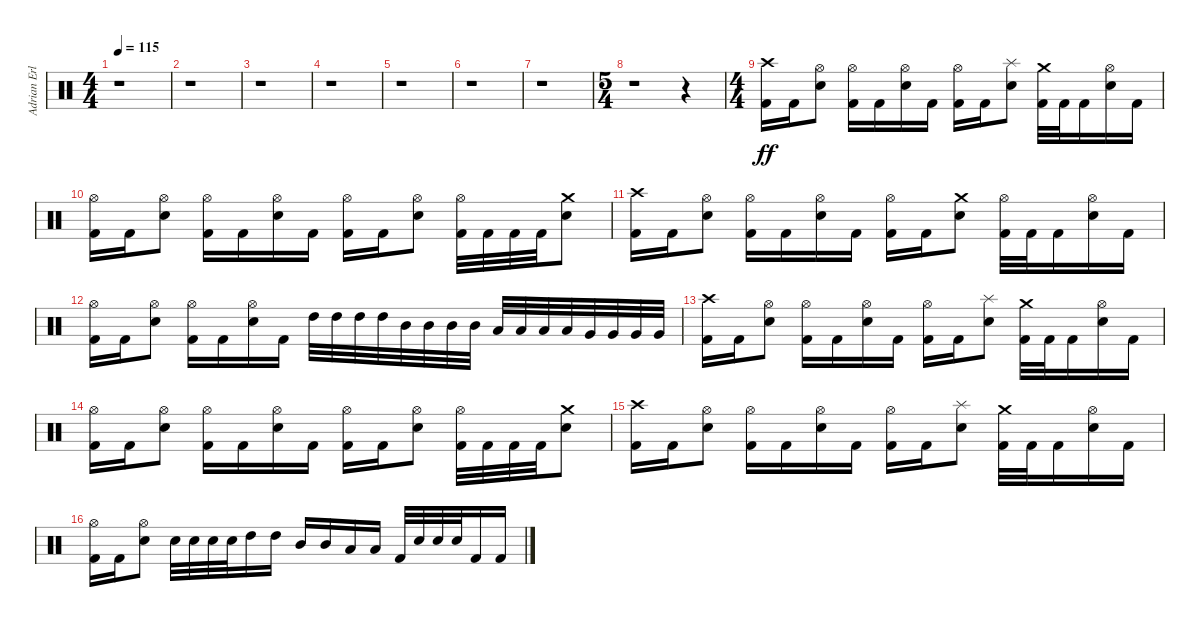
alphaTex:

\track ("Adrian Erlandsson" "Adrian Erl") {instrument percussion}
\staff {score}
\articulation defaults
\ts (4 4)
\tempo 115
\clef neutral
\ks c
r.1{dy ff} |
r.1 |
r.1 |
r.1 |
r.1 |
r.1 |
r.1 |
\ts (5 4)
r.1 r.4 |
\ts (4 4)
("Kick (hit) 2" "Crash high (hit)").16 "Kick (hit) 2".16 ("Electric Snare (hit)" "Hi-Hat (open)").8 ("Kick (hit) 2" "Hi-Hat (open)").16 "Kick (hit) 2".16 ("Electric Snare (hit)" "Hi-Hat (open)").16 "Kick (hit) 2".16 ("Kick (hit) 2" "Hi-Hat (open)").16 "Kick (hit) 2".16 ("Electric Snare (hit)" "Splash (hit)").8 ("Kick (hit) 2" "Crash medium (hit)").32 "Kick (hit) 2".32 "Kick (hit) 2".16 ("Electric Snare (hit)" "Hi-Hat (open)").16 "Kick (hit) 2".16 |
("Kick (hit) 2" "Hi-Hat (open)").16 "Kick (hit) 2".16 ("Electric Snare (hit)" "Hi-Hat (open)").8 ("Kick (hit) 2" "Hi-Hat (open)").16 "Kick (hit) 2".16 ("Electric Snare (hit)" "Hi-Hat (open)").16 "Kick (hit) 2".16 ("Kick (hit) 2" "Hi-Hat (open)").16 "Kick (hit) 2".16 ("Electric Snare (hit)" "Hi-Hat (open)").8 ("Kick (hit) 2" "Hi-Hat (open)").32 "Kick (hit) 2".32 "Kick (hit) 2".32 "Kick (hit) 2".32 ("Electric Snare (hit)" "Crash medium (hit)").8 |
("Kick (hit) 2" "Crash high (hit)").16 "Kick (hit) 2".16 ("Electric Snare (hit)" "Hi-Hat (open)").8 ("Kick (hit) 2" "Hi-Hat (open)").16 "Kick (hit) 2".16 ("Electric Snare (hit)" "Hi-Hat (open)").16 "Kick (hit) 2".16 ("Kick (hit) 2" "Hi-Hat (open)").16 "Kick (hit) 2".16 ("Electric Snare (hit)" "Crash medium (hit)").8 ("Kick (hit) 2" "Hi-Hat (open)").32 "Kick (hit) 2".32 "Kick (hit) 2".16 ("Electric Snare (hit)" "Hi-Hat (open)").16 "Kick (hit) 2".16 |
("Kick (hit) 2" "Hi-Hat (open)").16 "Kick (hit) 2".16 ("Electric Snare (hit)" "Hi-Hat (open)").8 ("Kick (hit) 2" "Hi-Hat (open)").16 "Kick (hit) 2".16 ("Electric Snare (hit)" "Hi-Hat (open)").16 "Kick (hit) 2".16 "High Tom (hit)".32 "High Tom (hit)".32 "High Tom (hit)".32 "High Tom (hit)".32 "Mid Tom (hit)".32 "Mid Tom (hit)".32 "Mid Tom (hit)".32 "Mid Tom (hit)".32 "Low Tom (hit)".32 "Low Tom (hit)".32 "Low Tom (hit)".32 "Low Tom (hit)".32 "Very Low Tom (hit)".32 "Very Low Tom (hit)".32 "Very Low Tom (hit)".32 "Very Low Tom (hit)".32 |
("Kick (hit) 2" "Crash high (hit)").16 "Kick (hit) 2".16 ("Electric Snare (hit)" "Hi-Hat (open)").8 ("Kick (hit) 2" "Hi-Hat (open)").16 "Kick (hit) 2".16 ("Electric Snare (hit)" "Hi-Hat (open)").16 "Kick (hit) 2".16 ("Kick (hit) 2" "Hi-Hat (open)").16 "Kick (hit) 2".16 ("Electric Snare (hit)" "Splash (hit)").8 ("Kick (hit) 2" "Crash medium (hit)").32 "Kick (hit) 2".32 "Kick (hit) 2".16 ("Electric Snare (hit)" "Hi-Hat (open)").16 "Kick (hit) 2".16 |
("Kick (hit) 2" "Hi-Hat (open)").16 "Kick (hit) 2".16 ("Electric Snare (hit)" "Hi-Hat (open)").8 ("Kick (hit) 2" "Hi-Hat (open)").16 "Kick (hit) 2".16 ("Electric Snare (hit)" "Hi-Hat (open)").16 "Kick (hit) 2".16 ("Kick (hit) 2" "Hi-Hat (open)").16 "Kick (hit) 2".16 ("Electric Snare (hit)" "Hi-Hat (open)").8 ("Kick (hit) 2" "Hi-Hat (open)").32 "Kick (hit) 2".32 "Kick (hit) 2".32 "Kick (hit) 2".32 ("Electric Snare (hit)" "Crash medium (hit)").8 |
("Kick (hit) 2" "Crash high (hit)").16 "Kick (hit) 2".16 ("Electric Snare (hit)" "Hi-Hat (open)").8 ("Kick (hit) 2" "Hi-Hat (open)").16 "Kick (hit) 2".16 ("Electric Snare (hit)" "Hi-Hat (open)").16 "Kick (hit) 2".16 ("Kick (hit) 2" "Hi-Hat (open)").16 "Kick (hit) 2".16 ("Electric Snare (hit)" "Splash (hit)").8 ("Kick (hit) 2" "Crash medium (hit)").32 "Kick (hit) 2".32 "Kick (hit) 2".16 ("Electric Snare (hit)" "Hi-Hat (open)").16 "Kick (hit) 2".16 |
("Kick (hit) 2" "Hi-Hat (open)").16 "Kick (hit) 2".16 ("Electric Snare (hit)" "Hi-Hat (open)").8 "Electric Snare (hit)".32 "Electric Snare (hit)".32 "Electric Snare (hit)".32 "Electric Snare (hit)".32 "High Tom (hit)".16 "High Tom (hit)".16 "Mid Tom (hit)".16 "Mid Tom (hit)".16 "Low Tom (hit)".16 "Low Tom (hit)".16 "Kick (hit) 2".32 "Electric Snare (hit)".32 "Electric Snare (hit)".32 "Electric Snare (hit)".32 "Kick (hit) 2".16 "Kick (hit) 2".16
